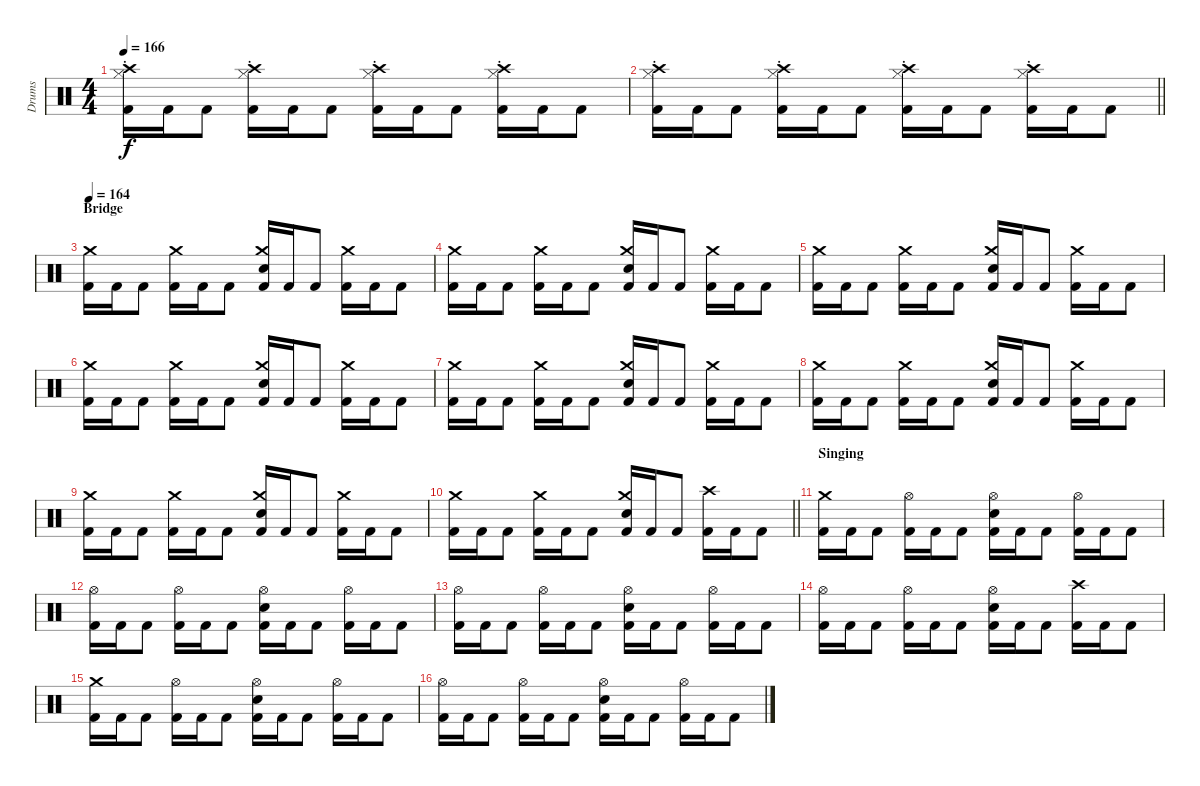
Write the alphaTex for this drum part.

\track ("Drums" "Drums") {instrument percussion}
\staff {score}
\articulation defaults
\ts (4 4)
\section ("" "")
\tempo 166
\clef neutral
\ks c
("Kick (hit) 2" "Crash high (hit)" "Hi-Hat (closed)"{st}).16{dy f} "Kick (hit) 2".16 "Kick (hit) 2".8 ("Kick (hit) 2" "Crash high (hit)" "Hi-Hat (closed)"{st}).16 "Kick (hit) 2".16 "Kick (hit) 2".8 ("Kick (hit) 2" "Crash high (hit)" "Hi-Hat (closed)"{st}).16 "Kick (hit) 2".16 "Kick (hit) 2".8 ("Kick (hit) 2" "Crash high (hit)" "Hi-Hat (closed)"{st}).16 "Kick (hit) 2".16 "Kick (hit) 2".8 |
\barLineRight lightlight
("Kick (hit) 2" "Crash high (hit)" "Hi-Hat (closed)"{st}).16 "Kick (hit) 2".16 "Kick (hit) 2".8 ("Kick (hit) 2" "Crash high (hit)" "Hi-Hat (closed)"{st}).16 "Kick (hit) 2".16 "Kick (hit) 2".8 ("Kick (hit) 2" "Crash high (hit)" "Hi-Hat (closed)"{st}).16 "Kick (hit) 2".16 "Kick (hit) 2".8 ("Kick (hit) 2" "Crash high (hit)" "Hi-Hat (closed)"{st}).16 "Kick (hit) 2".16 "Kick (hit) 2".8 |
\section ("" "Bridge")
\tempo 164
("Kick (hit) 2" "Crash medium (hit)").16 "Kick (hit) 2".16 "Kick (hit) 2".8 ("Kick (hit) 2" "Crash medium (hit)").16 "Kick (hit) 2".16 "Kick (hit) 2".8 ("Kick (hit) 2" "Snare (hit) 2" "Crash medium (hit)").16 "Kick (hit) 2".16 "Kick (hit) 2".8 ("Kick (hit) 2" "Crash medium (hit)").16 "Kick (hit) 2".16 "Kick (hit) 2".8 |
("Kick (hit) 2" "Crash medium (hit)").16 "Kick (hit) 2".16 "Kick (hit) 2".8 ("Kick (hit) 2" "Crash medium (hit)").16 "Kick (hit) 2".16 "Kick (hit) 2".8 ("Kick (hit) 2" "Snare (hit) 2" "Crash medium (hit)").16 "Kick (hit) 2".16 "Kick (hit) 2".8 ("Kick (hit) 2" "Crash medium (hit)").16 "Kick (hit) 2".16 "Kick (hit) 2".8 |
("Kick (hit) 2" "Crash medium (hit)").16 "Kick (hit) 2".16 "Kick (hit) 2".8 ("Kick (hit) 2" "Crash medium (hit)").16 "Kick (hit) 2".16 "Kick (hit) 2".8 ("Kick (hit) 2" "Snare (hit) 2" "Crash medium (hit)").16 "Kick (hit) 2".16 "Kick (hit) 2".8 ("Kick (hit) 2" "Crash medium (hit)").16 "Kick (hit) 2".16 "Kick (hit) 2".8 |
("Kick (hit) 2" "Crash medium (hit)").16 "Kick (hit) 2".16 "Kick (hit) 2".8 ("Kick (hit) 2" "Crash medium (hit)").16 "Kick (hit) 2".16 "Kick (hit) 2".8 ("Kick (hit) 2" "Snare (hit) 2" "Crash medium (hit)").16 "Kick (hit) 2".16 "Kick (hit) 2".8 ("Kick (hit) 2" "Crash medium (hit)").16 "Kick (hit) 2".16 "Kick (hit) 2".8 |
("Kick (hit) 2" "Crash medium (hit)").16 "Kick (hit) 2".16 "Kick (hit) 2".8 ("Kick (hit) 2" "Crash medium (hit)").16 "Kick (hit) 2".16 "Kick (hit) 2".8 ("Kick (hit) 2" "Snare (hit) 2" "Crash medium (hit)").16 "Kick (hit) 2".16 "Kick (hit) 2".8 ("Kick (hit) 2" "Crash medium (hit)").16 "Kick (hit) 2".16 "Kick (hit) 2".8 |
("Kick (hit) 2" "Crash medium (hit)").16 "Kick (hit) 2".16 "Kick (hit) 2".8 ("Kick (hit) 2" "Crash medium (hit)").16 "Kick (hit) 2".16 "Kick (hit) 2".8 ("Kick (hit) 2" "Snare (hit) 2" "Crash medium (hit)").16 "Kick (hit) 2".16 "Kick (hit) 2".8 ("Kick (hit) 2" "Crash medium (hit)").16 "Kick (hit) 2".16 "Kick (hit) 2".8 |
("Kick (hit) 2" "Crash medium (hit)").16 "Kick (hit) 2".16 "Kick (hit) 2".8 ("Kick (hit) 2" "Crash medium (hit)").16 "Kick (hit) 2".16 "Kick (hit) 2".8 ("Kick (hit) 2" "Snare (hit) 2" "Crash medium (hit)").16 "Kick (hit) 2".16 "Kick (hit) 2".8 ("Kick (hit) 2" "Crash medium (hit)").16 "Kick (hit) 2".16 "Kick (hit) 2".8 |
\barLineRight lightlight
("Kick (hit) 2" "Crash medium (hit)").16 "Kick (hit) 2".16 "Kick (hit) 2".8 ("Kick (hit) 2" "Crash medium (hit)").16 "Kick (hit) 2".16 "Kick (hit) 2".8 ("Kick (hit) 2" "Snare (hit) 2" "Crash medium (hit)").16 "Kick (hit) 2".16 "Kick (hit) 2".8 ("Kick (hit) 2" "Crash high (hit)").16 "Kick (hit) 2".16 "Kick (hit) 2".8 |
\section ("" "Singing")
("Kick (hit) 2" "Crash medium (hit)").16 "Kick (hit) 2".16 "Kick (hit) 2".8 ("Kick (hit) 2" "Hi-Hat (open)").16 "Kick (hit) 2".16 "Kick (hit) 2".8 ("Kick (hit) 2" "Snare (hit) 2" "Hi-Hat (open)").16 "Kick (hit) 2".16 "Kick (hit) 2".8 ("Kick (hit) 2" "Hi-Hat (open)").16 "Kick (hit) 2".16 "Kick (hit) 2".8 |
("Kick (hit) 2" "Hi-Hat (open)").16 "Kick (hit) 2".16 "Kick (hit) 2".8 ("Kick (hit) 2" "Hi-Hat (open)").16 "Kick (hit) 2".16 "Kick (hit) 2".8 ("Kick (hit) 2" "Snare (hit) 2" "Hi-Hat (open)").16 "Kick (hit) 2".16 "Kick (hit) 2".8 ("Kick (hit) 2" "Hi-Hat (open)").16 "Kick (hit) 2".16 "Kick (hit) 2".8 |
("Kick (hit) 2" "Hi-Hat (open)").16 "Kick (hit) 2".16 "Kick (hit) 2".8 ("Kick (hit) 2" "Hi-Hat (open)").16 "Kick (hit) 2".16 "Kick (hit) 2".8 ("Kick (hit) 2" "Snare (hit) 2" "Hi-Hat (open)").16 "Kick (hit) 2".16 "Kick (hit) 2".8 ("Kick (hit) 2" "Hi-Hat (open)").16 "Kick (hit) 2".16 "Kick (hit) 2".8 |
("Kick (hit) 2" "Hi-Hat (open)").16 "Kick (hit) 2".16 "Kick (hit) 2".8 ("Kick (hit) 2" "Hi-Hat (open)").16 "Kick (hit) 2".16 "Kick (hit) 2".8 ("Kick (hit) 2" "Snare (hit) 2" "Hi-Hat (open)").16 "Kick (hit) 2".16 "Kick (hit) 2".8 ("Kick (hit) 2" "Crash high (hit)").16 "Kick (hit) 2".16 "Kick (hit) 2".8 |
("Kick (hit) 2" "Crash medium (hit)").16 "Kick (hit) 2".16 "Kick (hit) 2".8 ("Kick (hit) 2" "Hi-Hat (open)").16 "Kick (hit) 2".16 "Kick (hit) 2".8 ("Kick (hit) 2" "Snare (hit) 2" "Hi-Hat (open)").16 "Kick (hit) 2".16 "Kick (hit) 2".8 ("Kick (hit) 2" "Hi-Hat (open)").16 "Kick (hit) 2".16 "Kick (hit) 2".8 |
("Kick (hit) 2" "Hi-Hat (open)").16 "Kick (hit) 2".16 "Kick (hit) 2".8 ("Kick (hit) 2" "Hi-Hat (open)").16 "Kick (hit) 2".16 "Kick (hit) 2".8 ("Kick (hit) 2" "Snare (hit) 2" "Hi-Hat (open)").16 "Kick (hit) 2".16 "Kick (hit) 2".8 ("Kick (hit) 2" "Hi-Hat (open)").16 "Kick (hit) 2".16 "Kick (hit) 2".8
